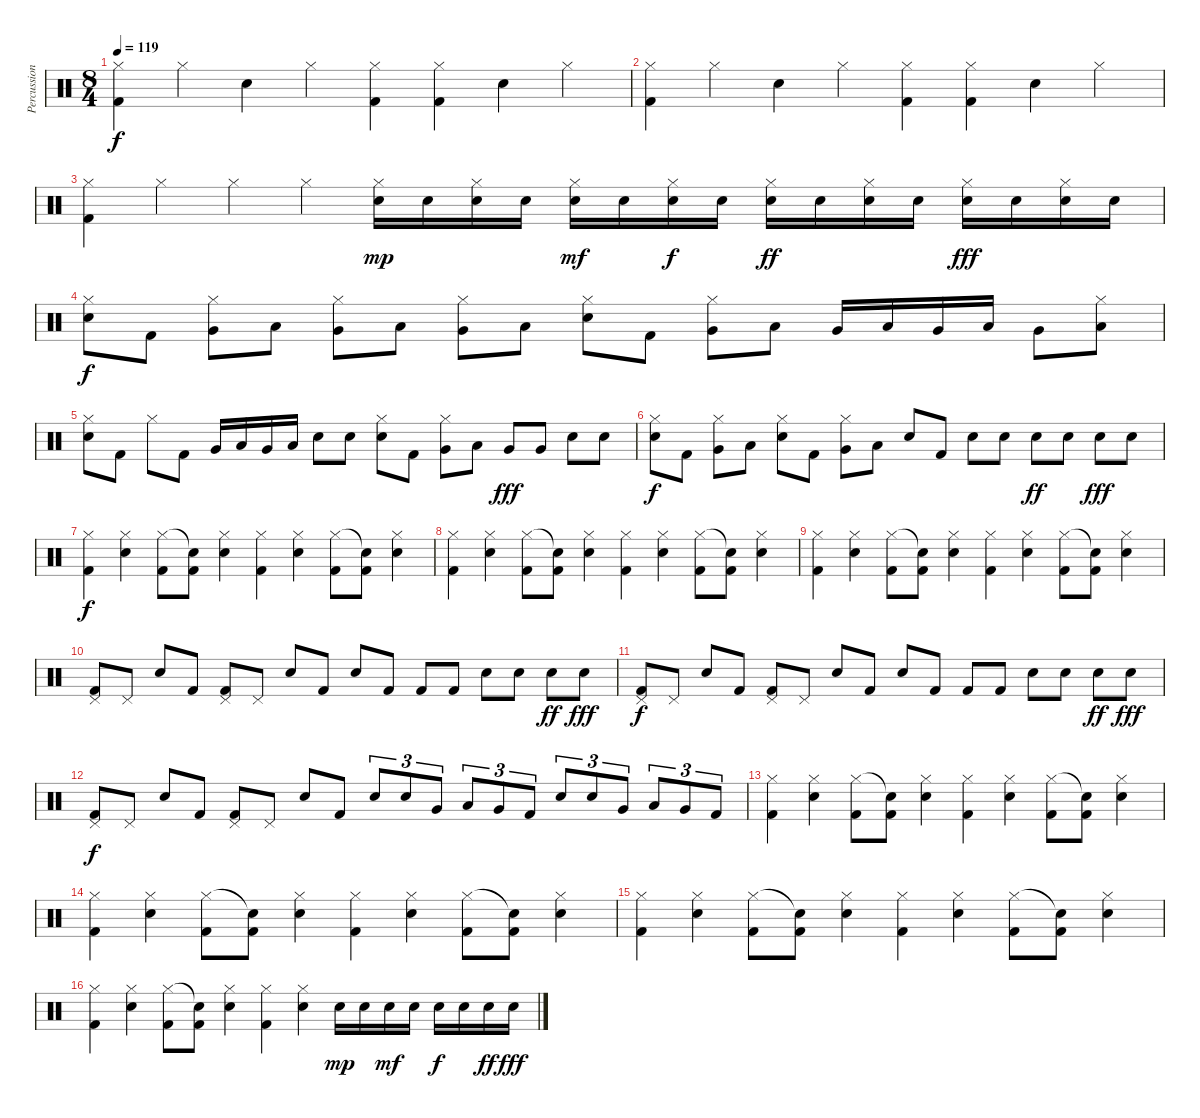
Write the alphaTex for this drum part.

\track ("Percussion" "Percussion") {instrument percussion}
\staff {score}
\articulation defaults
\ts (8 4)
\tempo 119
\clef neutral
\ks c
("Hi-Hat (closed)" "Kick (hit) 2").4{dy f} "Hi-Hat (closed)".4 "Snare (hit) 2".4 "Hi-Hat (closed)".4 ("Hi-Hat (closed)" "Kick (hit) 2").4 ("Hi-Hat (closed)" "Kick (hit) 2").4 "Snare (hit) 2".4 "Hi-Hat (closed)".4 |
("Hi-Hat (closed)" "Kick (hit) 2").4 "Hi-Hat (closed)".4 "Snare (hit) 2".4 "Hi-Hat (closed)".4 ("Hi-Hat (closed)" "Kick (hit) 2").4 ("Hi-Hat (closed)" "Kick (hit) 2").4 "Snare (hit) 2".4 "Hi-Hat (closed)".4 |
("Hi-Hat (closed)" "Kick (hit) 2").4 "Hi-Hat (closed)".4 "Hi-Hat (closed)".4 "Hi-Hat (closed)".4 ("Hi-Hat (closed)" "Snare (hit) 2").16{dy mp} "Snare (hit) 2".16 ("Hi-Hat (closed)" "Snare (hit) 2").16 "Snare (hit) 2".16 ("Hi-Hat (closed)" "Snare (hit) 2").16{dy mf} "Snare (hit) 2".16 ("Hi-Hat (closed)" "Snare (hit) 2").16{dy f} "Snare (hit) 2".16 ("Hi-Hat (closed)" "Snare (hit) 2").16{dy ff} "Snare (hit) 2".16 ("Hi-Hat (closed)" "Snare (hit) 2").16 "Snare (hit) 2".16 ("Hi-Hat (closed)" "Snare (hit) 2").16{dy fff} "Snare (hit) 2".16 ("Hi-Hat (closed)" "Snare (hit) 2").16 "Snare (hit) 2".16 |
("Hi-Hat (closed)" "Snare (hit) 2").8{dy f} "Kick (hit) 2".8 ("Hi-Hat (closed)" "Very Low Tom (hit)").8 "Low Floor Tom (hit)".8 ("Hi-Hat (closed)" "Very Low Tom (hit)").8 "Low Floor Tom (hit)".8 ("Hi-Hat (closed)" "Very Low Tom (hit)").8 "Low Floor Tom (hit)".8 ("Hi-Hat (closed)" "Snare (hit) 2").8 "Kick (hit) 2".8 ("Hi-Hat (closed)" "Very Low Tom (hit)").8 "Low Floor Tom (hit)".8 "Very Low Tom (hit)".16 "Low Floor Tom (hit)".16 "Very Low Tom (hit)".16 "Low Floor Tom (hit)".16 "Very Low Tom (hit)".8 ("Hi-Hat (closed)" "Low Floor Tom (hit)").8 |
("Hi-Hat (closed)" "Snare (hit) 2").8 "Kick (hit) 2".8 "Hi-Hat (closed)".8 "Kick (hit) 2".8 "Very Low Tom (hit)".16 "Low Floor Tom (hit)".16 "Very Low Tom (hit)".16 "Low Floor Tom (hit)".16 "Snare (hit) 2".8 "Snare (hit) 2".8 ("Hi-Hat (closed)" "Snare (hit) 2").8 "Kick (hit) 2".8 ("Hi-Hat (closed)" "Very Low Tom (hit)").8 "Low Floor Tom (hit)".8 "Very Low Tom (hit)".8{dy fff} "Very Low Tom (hit)".8 "Snare (hit) 2".8 "Snare (hit) 2".8 |
("Hi-Hat (closed)" "Snare (hit) 2").8{dy f} "Kick (hit) 2".8 ("Hi-Hat (closed)" "Very Low Tom (hit)").8 "Low Floor Tom (hit)".8 ("Hi-Hat (closed)" "Snare (hit) 2").8 "Kick (hit) 2".8 ("Hi-Hat (closed)" "Very Low Tom (hit)").8 "Low Floor Tom (hit)".8 "Snare (hit) 2".8 "Kick (hit) 2".8 "Snare (hit) 2".8 "Snare (hit) 2".8 "Snare (hit) 2".8{dy ff} "Snare (hit) 2".8 "Snare (hit) 2".8{dy fff} "Snare (hit) 2".8 |
("Hi-Hat (closed)" "Kick (hit) 2").4{dy f} ("Hi-Hat (closed)" "Snare (hit) 2").4 ("Hi-Hat (closed)" "Kick (hit) 2").8 ("Snare (hit)"{t} "Kick (hit) 2").8 ("Hi-Hat (closed)" "Snare (hit) 2").4 ("Hi-Hat (closed)" "Kick (hit) 2").4 ("Hi-Hat (closed)" "Snare (hit) 2").4 ("Hi-Hat (closed)" "Kick (hit) 2").8 ("Snare (hit)"{t} "Kick (hit) 2").8 ("Hi-Hat (closed)" "Snare (hit) 2").4 |
("Hi-Hat (closed)" "Kick (hit) 2").4 ("Hi-Hat (closed)" "Snare (hit) 2").4 ("Hi-Hat (closed)" "Kick (hit) 2").8 ("Snare (hit)"{t} "Kick (hit) 2").8 ("Hi-Hat (closed)" "Snare (hit) 2").4 ("Hi-Hat (closed)" "Kick (hit) 2").4 ("Hi-Hat (closed)" "Snare (hit) 2").4 ("Hi-Hat (closed)" "Kick (hit) 2").8 ("Snare (hit)"{t} "Kick (hit) 2").8 ("Hi-Hat (closed)" "Snare (hit) 2").4 |
("Hi-Hat (closed)" "Kick (hit) 2").4 ("Hi-Hat (closed)" "Snare (hit) 2").4 ("Hi-Hat (closed)" "Kick (hit) 2").8 ("Snare (hit)"{t} "Kick (hit) 2").8 ("Hi-Hat (closed)" "Snare (hit) 2").4 ("Hi-Hat (closed)" "Kick (hit) 2").4 ("Hi-Hat (closed)" "Snare (hit) 2").4 ("Hi-Hat (closed)" "Kick (hit) 2").8 ("Snare (hit)"{t} "Kick (hit) 2").8 ("Hi-Hat (closed)" "Snare (hit) 2").4 |
("Pedal Hi-Hat (hit)" "Kick (hit) 2").8 "Pedal Hi-Hat (hit)".8 "Snare (hit) 2".8 "Kick (hit) 2".8 ("Pedal Hi-Hat (hit)" "Kick (hit) 2").8 "Pedal Hi-Hat (hit)".8 "Snare (hit) 2".8 "Kick (hit) 2".8 "Snare (hit) 2".8 "Kick (hit) 2".8 "Kick (hit) 2".8 "Kick (hit) 2".8 "Snare (hit) 2".8 "Snare (hit) 2".8 "Snare (hit) 2".8{dy ff} "Snare (hit) 2".8{dy fff} |
("Pedal Hi-Hat (hit)" "Kick (hit) 2").8{dy f} "Pedal Hi-Hat (hit)".8 "Snare (hit) 2".8 "Kick (hit) 2".8 ("Pedal Hi-Hat (hit)" "Kick (hit) 2").8 "Pedal Hi-Hat (hit)".8 "Snare (hit) 2".8 "Kick (hit) 2".8 "Snare (hit) 2".8 "Kick (hit) 2".8 "Kick (hit) 2".8 "Kick (hit) 2".8 "Snare (hit) 2".8 "Snare (hit) 2".8 "Snare (hit) 2".8{dy ff} "Snare (hit) 2".8{dy fff} |
("Pedal Hi-Hat (hit)" "Kick (hit) 2").8{dy f} "Pedal Hi-Hat (hit)".8 "Snare (hit) 2".8 "Kick (hit) 2".8 ("Pedal Hi-Hat (hit)" "Kick (hit) 2").8 "Pedal Hi-Hat (hit)".8 "Snare (hit) 2".8 "Kick (hit) 2".8 "Snare (hit) 2".8{tu (3 2)} "Snare (hit) 2".8{tu (3 2)} "Very Low Tom (hit)".8{tu (3 2)} "Low Floor Tom (hit)".8{tu (3 2)} "Very Low Tom (hit)".8{tu (3 2)} "Kick (hit) 2".8{tu (3 2)} "Snare (hit) 2".8{tu (3 2)} "Snare (hit) 2".8{tu (3 2)} "Very Low Tom (hit)".8{tu (3 2)} "Low Floor Tom (hit)".8{tu (3 2)} "Very Low Tom (hit)".8{tu (3 2)} "Kick (hit) 2".8{tu (3 2)} |
("Hi-Hat (closed)" "Kick (hit) 2").4 ("Hi-Hat (closed)" "Snare (hit) 2").4 ("Hi-Hat (closed)" "Kick (hit) 2").8 ("Snare (hit)"{t} "Kick (hit) 2").8 ("Hi-Hat (closed)" "Snare (hit) 2").4 ("Hi-Hat (closed)" "Kick (hit) 2").4 ("Hi-Hat (closed)" "Snare (hit) 2").4 ("Hi-Hat (closed)" "Kick (hit) 2").8 ("Snare (hit)"{t} "Kick (hit) 2").8 ("Hi-Hat (closed)" "Snare (hit) 2").4 |
("Hi-Hat (closed)" "Kick (hit) 2").4 ("Hi-Hat (closed)" "Snare (hit) 2").4 ("Hi-Hat (closed)" "Kick (hit) 2").8 ("Snare (hit)"{t} "Kick (hit) 2").8 ("Hi-Hat (closed)" "Snare (hit) 2").4 ("Hi-Hat (closed)" "Kick (hit) 2").4 ("Hi-Hat (closed)" "Snare (hit) 2").4 ("Hi-Hat (closed)" "Kick (hit) 2").8 ("Snare (hit)"{t} "Kick (hit) 2").8 ("Hi-Hat (closed)" "Snare (hit) 2").4 |
("Hi-Hat (closed)" "Kick (hit) 2").4 ("Hi-Hat (closed)" "Snare (hit) 2").4 ("Hi-Hat (closed)" "Kick (hit) 2").8 ("Snare (hit)"{t} "Kick (hit) 2").8 ("Hi-Hat (closed)" "Snare (hit) 2").4 ("Hi-Hat (closed)" "Kick (hit) 2").4 ("Hi-Hat (closed)" "Snare (hit) 2").4 ("Hi-Hat (closed)" "Kick (hit) 2").8 ("Snare (hit)"{t} "Kick (hit) 2").8 ("Hi-Hat (closed)" "Snare (hit) 2").4 |
("Hi-Hat (closed)" "Kick (hit) 2").4 ("Hi-Hat (closed)" "Snare (hit) 2").4 ("Hi-Hat (closed)" "Kick (hit) 2").8 ("Snare (hit)"{t} "Kick (hit) 2").8 ("Hi-Hat (closed)" "Snare (hit) 2").4 ("Hi-Hat (closed)" "Kick (hit) 2").4 ("Hi-Hat (closed)" "Snare (hit) 2").4 "Snare (hit) 2".16{dy mp} "Snare (hit) 2".16 "Snare (hit) 2".16{dy mf} "Snare (hit) 2".16 "Snare (hit) 2".16{dy f} "Snare (hit) 2".16 "Snare (hit) 2".16{dy ff} "Snare (hit) 2".16{dy fff}
